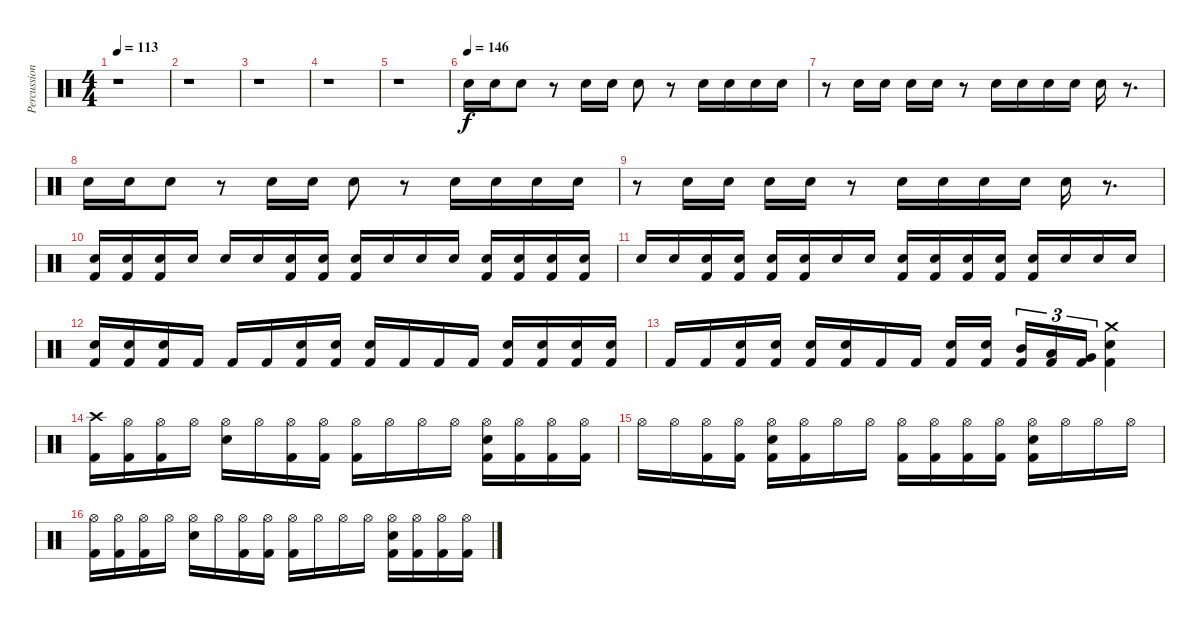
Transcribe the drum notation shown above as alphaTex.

\track ("Percussion" "Percussion") {instrument percussion}
\staff {score}
\articulation defaults
\ts (4 4)
\tempo 113
\clef neutral
\ks c
r.1{dy f} |
r.1 |
r.1 |
r.1 |
r.1 |
\tempo (146)
"Electric Snare (hit)".16 "Electric Snare (hit)".16 "Electric Snare (hit)".8 r.8 "Electric Snare (hit)".16 "Electric Snare (hit)".16 "Electric Snare (hit)".8 r.8 "Electric Snare (hit)".16 "Electric Snare (hit)".16 "Electric Snare (hit)".16 "Electric Snare (hit)".16 |
r.8 "Electric Snare (hit)".16 "Electric Snare (hit)".16 "Electric Snare (hit)".16 "Electric Snare (hit)".16 r.8 "Electric Snare (hit)".16 "Electric Snare (hit)".16 "Electric Snare (hit)".16 "Electric Snare (hit)".16 "Electric Snare (hit)".16 r.8{d} |
"Electric Snare (hit)".16 "Electric Snare (hit)".16 "Electric Snare (hit)".8 r.8 "Electric Snare (hit)".16 "Electric Snare (hit)".16 "Electric Snare (hit)".8 r.8 "Electric Snare (hit)".16 "Electric Snare (hit)".16 "Electric Snare (hit)".16 "Electric Snare (hit)".16 |
r.8 "Electric Snare (hit)".16 "Electric Snare (hit)".16 "Electric Snare (hit)".16 "Electric Snare (hit)".16 r.8 "Electric Snare (hit)".16 "Electric Snare (hit)".16 "Electric Snare (hit)".16 "Electric Snare (hit)".16 "Electric Snare (hit)".16 r.8{d} |
("Kick (hit) 2" "Snare (hit) 2").16 ("Kick (hit) 2" "Snare (hit) 2").16 ("Kick (hit) 2" "Snare (hit) 2").16 "Snare (hit) 2".16 "Snare (hit) 2".16 "Snare (hit) 2".16 ("Kick (hit) 2" "Snare (hit) 2").16 ("Kick (hit) 2" "Snare (hit) 2").16 ("Kick (hit) 2" "Snare (hit) 2").16 "Snare (hit) 2".16 "Snare (hit) 2".16 "Snare (hit) 2".16 ("Kick (hit) 2" "Snare (hit) 2").16 ("Kick (hit) 2" "Snare (hit) 2").16 ("Kick (hit) 2" "Snare (hit) 2").16 ("Kick (hit) 2" "Snare (hit) 2").16 |
"Snare (hit) 2".16 "Snare (hit) 2".16 ("Kick (hit) 2" "Snare (hit) 2").16 ("Kick (hit) 2" "Snare (hit) 2").16 ("Kick (hit) 2" "Snare (hit) 2").16 ("Kick (hit) 2" "Snare (hit) 2").16 "Snare (hit) 2".16 "Snare (hit) 2".16 ("Kick (hit) 2" "Snare (hit) 2").16 ("Kick (hit) 2" "Snare (hit) 2").16 ("Kick (hit) 2" "Snare (hit) 2").16 ("Kick (hit) 2" "Snare (hit) 2").16 ("Kick (hit) 2" "Snare (hit) 2").16 "Snare (hit) 2".16 "Snare (hit) 2".16 "Snare (hit) 2".16 |
("Kick (hit) 2" "Electric Snare (hit)").16 ("Kick (hit) 2" "Electric Snare (hit)").16 ("Kick (hit) 2" "Electric Snare (hit)").16 "Kick (hit) 2".16 "Kick (hit) 2".16 "Kick (hit) 2".16 ("Kick (hit) 2" "Electric Snare (hit)").16 ("Kick (hit) 2" "Electric Snare (hit)").16 ("Kick (hit) 2" "Electric Snare (hit)").16 "Kick (hit) 2".16 "Kick (hit) 2".16 "Kick (hit) 2".16 ("Kick (hit) 2" "Electric Snare (hit)").16 ("Kick (hit) 2" "Electric Snare (hit)").16 ("Kick (hit) 2" "Electric Snare (hit)").16 ("Kick (hit) 2" "Electric Snare (hit)").16 |
"Kick (hit) 2".16 "Kick (hit) 2".16 ("Kick (hit) 2" "Electric Snare (hit)").16 ("Kick (hit) 2" "Electric Snare (hit)").16 ("Kick (hit) 2" "Electric Snare (hit)").16 ("Kick (hit) 2" "Electric Snare (hit)").16 "Kick (hit) 2".16 "Kick (hit) 2".16 ("Kick (hit) 2" "Electric Snare (hit)").16 ("Kick (hit) 2" "Electric Snare (hit)").16{beam splitsecondary} ("Kick (hit) 2" "Mid Tom (hit)").16{tu (3 2)} ("Kick (hit) 2" "Low Tom (hit)").16{tu (3 2)} ("Kick (hit) 2" "Very Low Tom (hit)").16{tu (3 2)} ("Kick (hit) 2" "Electric Snare (hit)" "Crash medium (hit)").4 |
("Kick (hit) 2" "Crash high (hit)").16 ("Kick (hit) 2" "Hi-Hat (open)").16 ("Kick (hit) 2" "Hi-Hat (open)").16 "Hi-Hat (open)".16 ("Electric Snare (hit)" "Hi-Hat (open)").16 "Hi-Hat (open)".16 ("Kick (hit) 2" "Hi-Hat (open)").16 ("Kick (hit) 2" "Hi-Hat (open)").16 ("Kick (hit) 2" "Hi-Hat (open)").16 "Hi-Hat (open)".16 "Hi-Hat (open)".16 "Hi-Hat (open)".16 ("Kick (hit) 2" "Electric Snare (hit)" "Hi-Hat (open)").16 ("Kick (hit) 2" "Hi-Hat (open)").16 ("Kick (hit) 2" "Hi-Hat (open)").16 ("Kick (hit) 2" "Hi-Hat (open)").16 |
"Hi-Hat (open)".16 "Hi-Hat (open)".16 ("Kick (hit) 2" "Hi-Hat (open)").16 ("Kick (hit) 2" "Hi-Hat (open)").16 ("Kick (hit) 2" "Electric Snare (hit)" "Hi-Hat (open)").16 ("Kick (hit) 2" "Hi-Hat (open)").16 "Hi-Hat (open)".16 "Hi-Hat (open)".16 ("Kick (hit) 2" "Hi-Hat (open)").16 ("Kick (hit) 2" "Hi-Hat (open)").16 ("Kick (hit) 2" "Hi-Hat (open)").16 ("Kick (hit) 2" "Hi-Hat (open)").16 ("Kick (hit) 2" "Electric Snare (hit)" "Hi-Hat (open)").16 "Hi-Hat (open)".16 "Hi-Hat (open)".16 "Hi-Hat (open)".16 |
("Kick (hit) 2" "Hi-Hat (open)").16 ("Kick (hit) 2" "Hi-Hat (open)").16 ("Kick (hit) 2" "Hi-Hat (open)").16 "Hi-Hat (open)".16 ("Electric Snare (hit)" "Hi-Hat (open)").16 "Hi-Hat (open)".16 ("Kick (hit) 2" "Hi-Hat (open)").16 ("Kick (hit) 2" "Hi-Hat (open)").16 ("Kick (hit) 2" "Hi-Hat (open)").16 "Hi-Hat (open)".16 "Hi-Hat (open)".16 "Hi-Hat (open)".16 ("Kick (hit) 2" "Electric Snare (hit)" "Hi-Hat (open)").16 ("Kick (hit) 2" "Hi-Hat (open)").16 ("Kick (hit) 2" "Hi-Hat (open)").16 ("Kick (hit) 2" "Hi-Hat (open)").16
